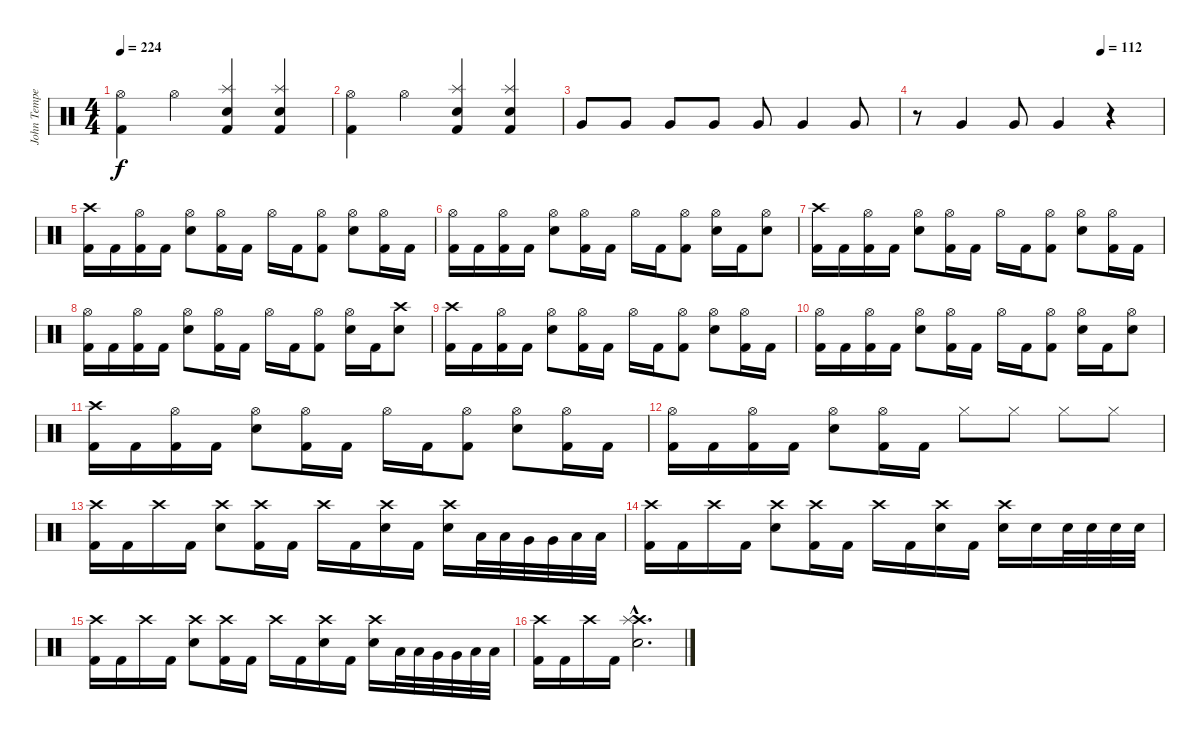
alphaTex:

\track ("John Tempesta" "John Tempe") {instrument percussion}
\staff {score}
\articulation defaults
\ts (4 4)
\tempo 224
\clef neutral
\ks c
("Hi-Hat (open)" "Kick (hit) 2").4{dy f} "Hi-Hat (open)".4 ("Splash (hit)" "Electric Snare (hit)" "Kick (hit) 2").4 ("Splash (hit)" "Electric Snare (hit)" "Kick (hit) 2").4 |
("Hi-Hat (open)" "Kick (hit) 2").4 "Hi-Hat (open)".4 ("Splash (hit)" "Electric Snare (hit)" "Kick (hit) 2").4 ("Splash (hit)" "Electric Snare (hit)" "Kick (hit) 2").4 |
"Very Low Tom (hit)".8 "Very Low Tom (hit)".8 "Very Low Tom (hit)".8 "Very Low Tom (hit)".8 "Very Low Tom (hit)".8 "Very Low Tom (hit)".4 "Very Low Tom (hit)".8 |
\tempo (112 0.75)
r.8 "Very Low Tom (hit)".4 "Very Low Tom (hit)".8 "Very Low Tom (hit)".4 r.4 |
("Crash high (hit)" "Kick (hit) 2").16 "Kick (hit) 2".16 ("Hi-Hat (open)" "Kick (hit) 2").16 "Kick (hit) 2".16 ("Hi-Hat (open)" "Electric Snare (hit)").8 ("Hi-Hat (open)" "Kick (hit) 2").16 "Kick (hit) 2".16 "Hi-Hat (open)".16 "Kick (hit) 2".16 ("Hi-Hat (open)" "Kick (hit) 2").8 ("Hi-Hat (open)" "Electric Snare (hit)").8 ("Hi-Hat (open)" "Kick (hit) 2").16 "Kick (hit) 2".16 |
("Hi-Hat (open)" "Kick (hit) 2").16 "Kick (hit) 2".16 ("Hi-Hat (open)" "Kick (hit) 2").16 "Kick (hit) 2".16 ("Hi-Hat (open)" "Electric Snare (hit)").8 ("Hi-Hat (open)" "Kick (hit) 2").16 "Kick (hit) 2".16 "Hi-Hat (open)".16 "Kick (hit) 2".16 ("Hi-Hat (open)" "Kick (hit) 2").8 ("Hi-Hat (open)" "Electric Snare (hit)").16 "Kick (hit) 2".16 ("Hi-Hat (open)" "Electric Snare (hit)").8 |
("Crash high (hit)" "Kick (hit) 2").16 "Kick (hit) 2".16 ("Hi-Hat (open)" "Kick (hit) 2").16 "Kick (hit) 2".16 ("Hi-Hat (open)" "Electric Snare (hit)").8 ("Hi-Hat (open)" "Kick (hit) 2").16 "Kick (hit) 2".16 "Hi-Hat (open)".16 "Kick (hit) 2".16 ("Hi-Hat (open)" "Kick (hit) 2").8 ("Hi-Hat (open)" "Electric Snare (hit)").8 ("Hi-Hat (open)" "Kick (hit) 2").16 "Kick (hit) 2".16 |
("Hi-Hat (open)" "Kick (hit) 2").16 "Kick (hit) 2".16 ("Hi-Hat (open)" "Kick (hit) 2").16 "Kick (hit) 2".16 ("Hi-Hat (open)" "Electric Snare (hit)").8 ("Hi-Hat (open)" "Kick (hit) 2").16 "Kick (hit) 2".16 "Hi-Hat (open)".16 "Kick (hit) 2".16 ("Hi-Hat (open)" "Kick (hit) 2").8 ("Hi-Hat (open)" "Electric Snare (hit)").16 "Kick (hit) 2".16 ("Crash high (hit)" "Electric Snare (hit)").8 |
("Crash high (hit)" "Kick (hit) 2").16 "Kick (hit) 2".16 ("Hi-Hat (open)" "Kick (hit) 2").16 "Kick (hit) 2".16 ("Hi-Hat (open)" "Electric Snare (hit)").8 ("Hi-Hat (open)" "Kick (hit) 2").16 "Kick (hit) 2".16 "Hi-Hat (open)".16 "Kick (hit) 2".16 ("Hi-Hat (open)" "Kick (hit) 2").8 ("Hi-Hat (open)" "Electric Snare (hit)").8 ("Hi-Hat (open)" "Kick (hit) 2").16 "Kick (hit) 2".16 |
("Hi-Hat (open)" "Kick (hit) 2").16 "Kick (hit) 2".16 ("Hi-Hat (open)" "Kick (hit) 2").16 "Kick (hit) 2".16 ("Hi-Hat (open)" "Electric Snare (hit)").8 ("Hi-Hat (open)" "Kick (hit) 2").16 "Kick (hit) 2".16 "Hi-Hat (open)".16 "Kick (hit) 2".16 ("Hi-Hat (open)" "Kick (hit) 2").8 ("Hi-Hat (open)" "Electric Snare (hit)").16 "Kick (hit) 2".16 ("Hi-Hat (open)" "Electric Snare (hit)").8 |
("Crash high (hit)" "Kick (hit) 2").16 "Kick (hit) 2".16 ("Hi-Hat (open)" "Kick (hit) 2").16 "Kick (hit) 2".16 ("Hi-Hat (open)" "Electric Snare (hit)").8 ("Hi-Hat (open)" "Kick (hit) 2").16 "Kick (hit) 2".16 "Hi-Hat (open)".16 "Kick (hit) 2".16 ("Hi-Hat (open)" "Kick (hit) 2").8 ("Hi-Hat (open)" "Electric Snare (hit)").8 ("Hi-Hat (open)" "Kick (hit) 2").16 "Kick (hit) 2".16 |
("Hi-Hat (open)" "Kick (hit) 2").16 "Kick (hit) 2".16 ("Hi-Hat (open)" "Kick (hit) 2").16 "Kick (hit) 2".16 ("Hi-Hat (open)" "Electric Snare (hit)").8 ("Hi-Hat (open)" "Kick (hit) 2").16 "Kick (hit) 2".16 "Hi-Hat (closed)".8 "Hi-Hat (closed)".8 "Hi-Hat (closed)".8 "Hi-Hat (closed)".8 |
("Crash high (hit)" "Kick (hit) 2").16 "Kick (hit) 2".16 "Crash high (hit)".16 "Kick (hit) 2".16 ("Crash high (hit)" "Electric Snare (hit)").8 ("Crash high (hit)" "Kick (hit) 2").16 "Kick (hit) 2".16 "Crash high (hit)".16 "Kick (hit) 2".16 ("Crash high (hit)" "Electric Snare (hit)").16 "Kick (hit) 2".16 ("Crash high (hit)" "Electric Snare (hit)").16 "Low Tom (hit)".32 "Low Tom (hit)".32 "Very Low Tom (hit)".32 "Very Low Tom (hit)".32 "Low Floor Tom (hit)".32 "Low Floor Tom (hit)".32 |
("Crash high (hit)" "Kick (hit) 2").16 "Kick (hit) 2".16 "Crash high (hit)".16 "Kick (hit) 2".16 ("Crash high (hit)" "Electric Snare (hit)").8 ("Crash high (hit)" "Kick (hit) 2").16 "Kick (hit) 2".16 "Crash high (hit)".16 "Kick (hit) 2".16 ("Crash high (hit)" "Electric Snare (hit)").16 "Kick (hit) 2".16 ("Crash high (hit)" "Electric Snare (hit)").16 "Electric Snare (hit)".16 "Electric Snare (hit)".32 "Electric Snare (hit)".32 "Electric Snare (hit)".32 "Electric Snare (hit)".32 |
("Crash high (hit)" "Kick (hit) 2").16 "Kick (hit) 2".16 "Crash high (hit)".16 "Kick (hit) 2".16 ("Crash high (hit)" "Electric Snare (hit)").8 ("Crash high (hit)" "Kick (hit) 2").16 "Kick (hit) 2".16 "Crash high (hit)".16 "Kick (hit) 2".16 ("Crash high (hit)" "Electric Snare (hit)").16 "Kick (hit) 2".16 ("Crash high (hit)" "Electric Snare (hit)").16 "Low Tom (hit)".32 "Low Tom (hit)".32 "Very Low Tom (hit)".32 "Very Low Tom (hit)".32 "Low Floor Tom (hit)".32 "Low Floor Tom (hit)".32 |
("Crash high (hit)" "Kick (hit) 2").16 "Kick (hit) 2".16 "Crash high (hit)".16 "Kick (hit) 2".16 ("Crash high (hit)"{hac} "Splash (hit)"{hac} "Electric Snare (hit)"{hac}).2{d}
